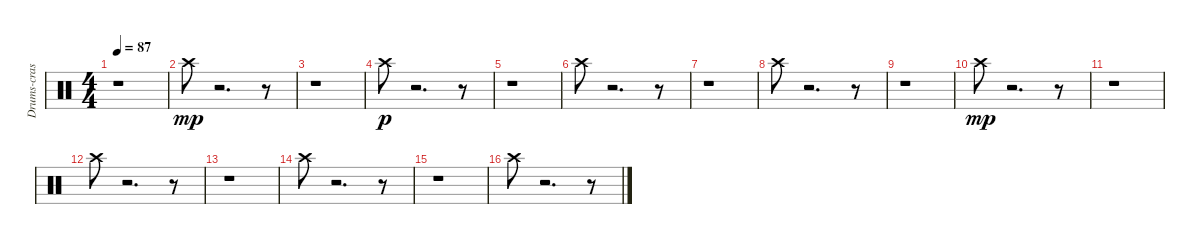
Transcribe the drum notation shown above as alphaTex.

\track ("Drums-crash cymbal 1" "Drums-cras") {instrument percussion}
\staff {score}
\articulation defaults
\ts (4 4)
\tempo 87
\clef neutral
\ks c
r.1{dy mp} |
"Crash high (hit)".8 r.2{d} r.8 |
r.1 |
"Crash high (hit)".8{dy p} r.2{d} r.8 |
r.1 |
"Crash high (hit)".8 r.2{d} r.8 |
r.1 |
"Crash high (hit)".8 r.2{d} r.8 |
r.1 |
"Crash high (hit)".8{dy mp} r.2{d} r.8 |
r.1 |
"Crash high (hit)".8 r.2{d} r.8 |
r.1 |
"Crash high (hit)".8 r.2{d} r.8 |
r.1 |
"Crash high (hit)".8 r.2{d} r.8
